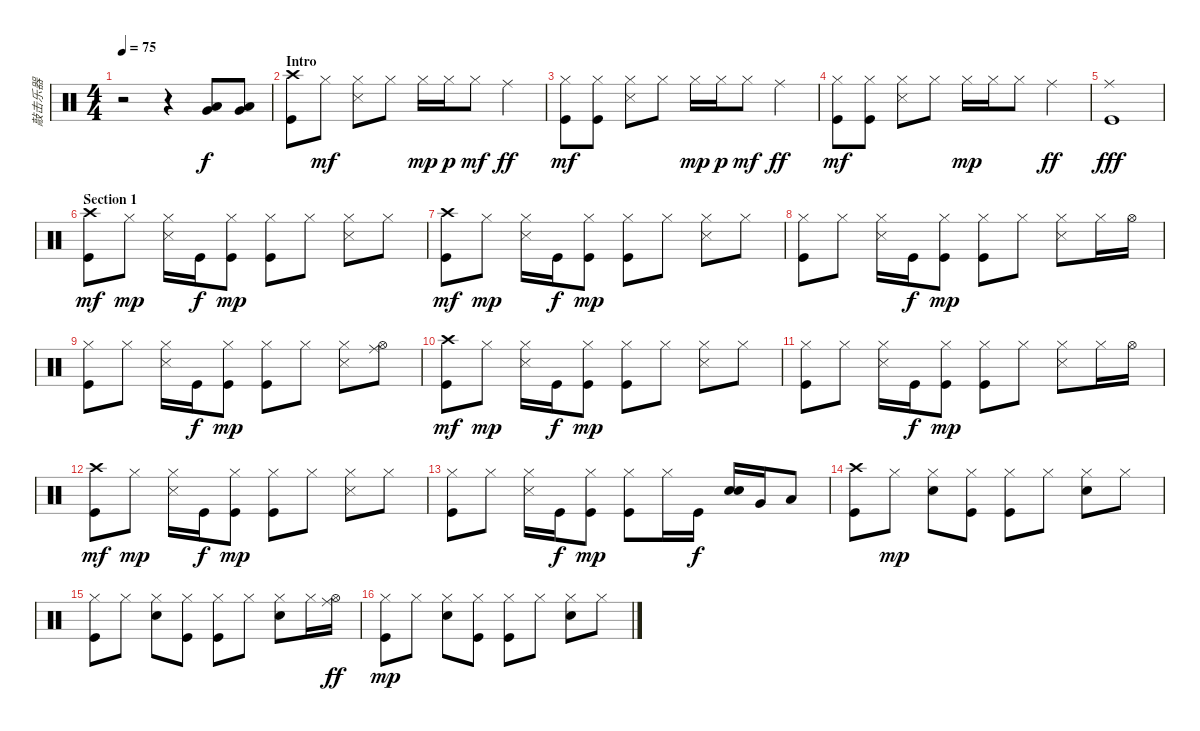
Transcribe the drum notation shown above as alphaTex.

\track ("敲击乐器" "敲击乐器") {instrument percussion}
\staff {score}
\articulation defaults
\ts (4 4)
\tempo 75
\clef neutral
\ks c
r.2{dy f} r.4 ("Very Low Tom (hit)" "Low Tom (hit)").8 ("Low Floor Tom (hit)" "Very Low Tom (hit)").8 |
\section ("" "Intro")
("Kick (hit)" "Crash high (hit)").8 "Hi-Hat (closed)".8{dy mf} ("Snare (side stick) 3" "Hi-Hat (closed)").8 "Hi-Hat (closed)".8 "Hi-Hat (closed)".16{dy mp} "Hi-Hat (closed)".16{dy p} "Hi-Hat (closed)".8{dy mf} "Ride (middle)".4{dy ff} |
("Kick (hit)" "Hi-Hat (closed)").8{dy mf} ("Kick (hit)" "Hi-Hat (closed)").8 ("Snare (side stick) 3" "Hi-Hat (closed)").8 "Hi-Hat (closed)".8 "Hi-Hat (closed)".16{dy mp} "Hi-Hat (closed)".16{dy p} "Hi-Hat (closed)".8{dy mf} "Ride (middle)".4{dy ff} |
("Kick (hit)" "Hi-Hat (closed)").8{dy mf} ("Kick (hit)" "Hi-Hat (closed)").8 ("Snare (side stick) 3" "Hi-Hat (closed)").8 "Hi-Hat (closed)".8 "Hi-Hat (closed)".16{dy mp} "Hi-Hat (closed)".16 "Hi-Hat (closed)".8 "Ride (middle)".4{dy ff} |
("Kick (hit)" "Ride (middle)").1{dy fff} |
\section ("" "Section 1")
("Kick (hit)" "Crash high (hit)").8{dy mf} "Hi-Hat (closed)".8{dy mp} ("Snare (side stick) 3" "Hi-Hat (closed)").16 "Kick (hit)".16{dy f} ("Kick (hit)" "Hi-Hat (closed)").8{dy mp} ("Kick (hit)" "Hi-Hat (closed)").8 "Hi-Hat (closed)".8 ("Snare (side stick) 3" "Hi-Hat (closed)").8 "Hi-Hat (closed)".8 |
("Kick (hit)" "Crash high (hit)").8{dy mf} "Hi-Hat (closed)".8{dy mp} ("Snare (side stick) 3" "Hi-Hat (closed)").16 "Kick (hit)".16{dy f} ("Kick (hit)" "Hi-Hat (closed)").8{dy mp} ("Kick (hit)" "Hi-Hat (closed)").8 "Hi-Hat (closed)".8 ("Snare (side stick) 3" "Hi-Hat (closed)").8 "Hi-Hat (closed)".8 |
("Kick (hit)" "Hi-Hat (closed)").8 "Hi-Hat (closed)".8 ("Snare (side stick) 3" "Hi-Hat (closed)").16 "Kick (hit)".16{dy f} ("Kick (hit)" "Hi-Hat (closed)").8{dy mp} ("Kick (hit)" "Hi-Hat (closed)").8 "Hi-Hat (closed)".8 ("Snare (side stick) 3" "Hi-Hat (closed)").8 "Hi-Hat (closed)".16 "Hi-Hat (open)".16 |
("Kick (hit)" "Hi-Hat (closed)").8 "Hi-Hat (closed)".8 ("Snare (side stick) 3" "Hi-Hat (closed)").16 "Kick (hit)".16{dy f} ("Kick (hit)" "Hi-Hat (closed)").8{dy mp} ("Kick (hit)" "Hi-Hat (closed)").8 "Hi-Hat (closed)".8 ("Snare (side stick) 3" "Hi-Hat (closed)").8 ("Ride (middle)" "Hi-Hat (open)").8 |
("Kick (hit)" "Crash high (hit)").8{dy mf} "Hi-Hat (closed)".8{dy mp} ("Snare (side stick) 3" "Hi-Hat (closed)").16 "Kick (hit)".16{dy f} ("Kick (hit)" "Hi-Hat (closed)").8{dy mp} ("Kick (hit)" "Hi-Hat (closed)").8 "Hi-Hat (closed)".8 ("Snare (side stick) 3" "Hi-Hat (closed)").8 "Hi-Hat (closed)".8 |
("Kick (hit)" "Hi-Hat (closed)").8 "Hi-Hat (closed)".8 ("Snare (side stick) 3" "Hi-Hat (closed)").16 "Kick (hit)".16{dy f} ("Kick (hit)" "Hi-Hat (closed)").8{dy mp} ("Kick (hit)" "Hi-Hat (closed)").8 "Hi-Hat (closed)".8 ("Snare (side stick) 3" "Hi-Hat (closed)").8 "Hi-Hat (closed)".16 "Hi-Hat (open)".16 |
("Kick (hit)" "Crash high (hit)").8{dy mf} "Hi-Hat (closed)".8{dy mp} ("Snare (side stick) 3" "Hi-Hat (closed)").16 "Kick (hit)".16{dy f} ("Kick (hit)" "Hi-Hat (closed)").8{dy mp} ("Kick (hit)" "Hi-Hat (closed)").8 "Hi-Hat (closed)".8 ("Snare (side stick) 3" "Hi-Hat (closed)").8 "Hi-Hat (closed)".8 |
("Kick (hit)" "Hi-Hat (closed)").8 "Hi-Hat (closed)".8 ("Snare (side stick) 3" "Hi-Hat (closed)").16 "Kick (hit)".16{dy f} ("Kick (hit)" "Hi-Hat (closed)").8{dy mp} ("Kick (hit)" "Hi-Hat (closed)").8 "Hi-Hat (closed)".16 "Kick (hit)".16{dy f} ("Electric Snare (hit)" "Electric Snare (hit)").16 "Very Low Tom (hit)".16 "Low Floor Tom (hit)".8 |
("Kick (hit)" "Crash high (hit)").8 "Hi-Hat (closed)".8{dy mp} ("Electric Snare (hit)" "Hi-Hat (closed)").8 ("Kick (hit)" "Hi-Hat (closed)").8 ("Kick (hit)" "Hi-Hat (closed)").8 "Hi-Hat (closed)".8 ("Electric Snare (hit)" "Hi-Hat (closed)").8 "Hi-Hat (closed)".8 |
("Kick (hit)" "Hi-Hat (closed)").8 "Hi-Hat (closed)".8 ("Electric Snare (hit)" "Hi-Hat (closed)").8 ("Kick (hit)" "Hi-Hat (closed)").8 ("Kick (hit)" "Hi-Hat (closed)").8 "Hi-Hat (closed)".8 ("Electric Snare (hit)" "Hi-Hat (closed)").8 "Hi-Hat (closed)".16 ("Ride (middle)" "Hi-Hat (open)").16{dy ff} |
("Kick (hit)" "Hi-Hat (closed)").8{dy mp} "Hi-Hat (closed)".8 ("Electric Snare (hit)" "Hi-Hat (closed)").8 ("Kick (hit)" "Hi-Hat (closed)").8 ("Kick (hit)" "Hi-Hat (closed)").8 "Hi-Hat (closed)".8 ("Electric Snare (hit)" "Hi-Hat (closed)").8 "Hi-Hat (closed)".8
